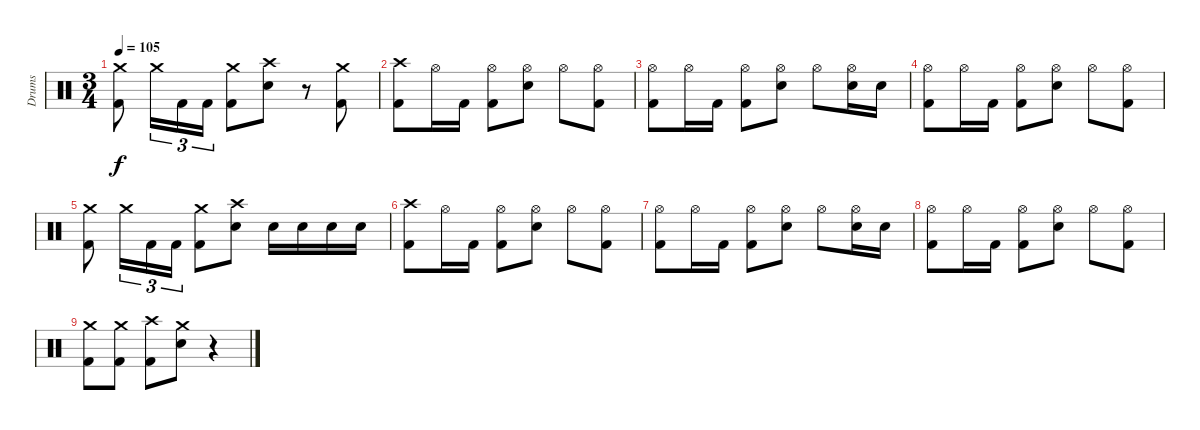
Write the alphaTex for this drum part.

\track ("Drums" "Drums") {instrument percussion}
\staff {score}
\articulation defaults
\ts (3 4)
\tempo 105
\clef neutral
\ks c
("Crash medium (hit)" "Kick (hit) 2").8{dy f} "Crash medium (hit)".16{tu (3 2)} "Kick (hit) 2".16{tu (3 2)} "Kick (hit) 2".16{tu (3 2)} ("Crash medium (hit)" "Kick (hit) 2").8 ("Crash high (hit)" "Electric Snare (hit)").8 r.8 ("Crash medium (hit)" "Kick (hit) 2").8 |
("Crash high (hit)" "Kick (hit) 2").8 "Hi-Hat (open)".16 "Kick (hit) 2".16 ("Hi-Hat (open)" "Kick (hit) 2").8 ("Hi-Hat (open)" "Electric Snare (hit)").8 "Hi-Hat (open)".8 ("Hi-Hat (open)" "Kick (hit) 2").8 |
("Hi-Hat (open)" "Kick (hit) 2").8 "Hi-Hat (open)".16 "Kick (hit) 2".16 ("Hi-Hat (open)" "Kick (hit) 2").8 ("Hi-Hat (open)" "Electric Snare (hit)").8 "Hi-Hat (open)".8 ("Hi-Hat (open)" "Electric Snare (hit)").16 "Electric Snare (hit)".16 |
("Hi-Hat (open)" "Kick (hit) 2").8 "Hi-Hat (open)".16 "Kick (hit) 2".16 ("Hi-Hat (open)" "Kick (hit) 2").8 ("Hi-Hat (open)" "Electric Snare (hit)").8 "Hi-Hat (open)".8 ("Hi-Hat (open)" "Kick (hit) 2").8 |
("Crash medium (hit)" "Kick (hit) 2").8 "Crash medium (hit)".16{tu (3 2)} "Kick (hit) 2".16{tu (3 2)} "Kick (hit) 2".16{tu (3 2)} ("Crash medium (hit)" "Kick (hit) 2").8 ("Crash high (hit)" "Electric Snare (hit)").8 "Electric Snare (hit)".16 "Electric Snare (hit)".16 "Electric Snare (hit)".16 "Electric Snare (hit)".16 |
("Crash high (hit)" "Kick (hit) 2").8 "Hi-Hat (open)".16 "Kick (hit) 2".16 ("Hi-Hat (open)" "Kick (hit) 2").8 ("Hi-Hat (open)" "Electric Snare (hit)").8 "Hi-Hat (open)".8 ("Hi-Hat (open)" "Kick (hit) 2").8 |
("Hi-Hat (open)" "Kick (hit) 2").8 "Hi-Hat (open)".16 "Kick (hit) 2".16 ("Hi-Hat (open)" "Kick (hit) 2").8 ("Hi-Hat (open)" "Electric Snare (hit)").8 "Hi-Hat (open)".8 ("Hi-Hat (open)" "Electric Snare (hit)").16 "Electric Snare (hit)".16 |
("Hi-Hat (open)" "Kick (hit) 2").8 "Hi-Hat (open)".16 "Kick (hit) 2".16 ("Hi-Hat (open)" "Kick (hit) 2").8 ("Hi-Hat (open)" "Electric Snare (hit)").8 "Hi-Hat (open)".8 ("Hi-Hat (open)" "Kick (hit) 2").8 |
("Crash medium (hit)" "Kick (hit) 2").8 ("Crash medium (hit)" "Kick (hit) 2").8 ("Crash high (hit)" "Kick (hit) 2").8 ("Crash medium (hit)" "Electric Snare (hit)").8 r.4
